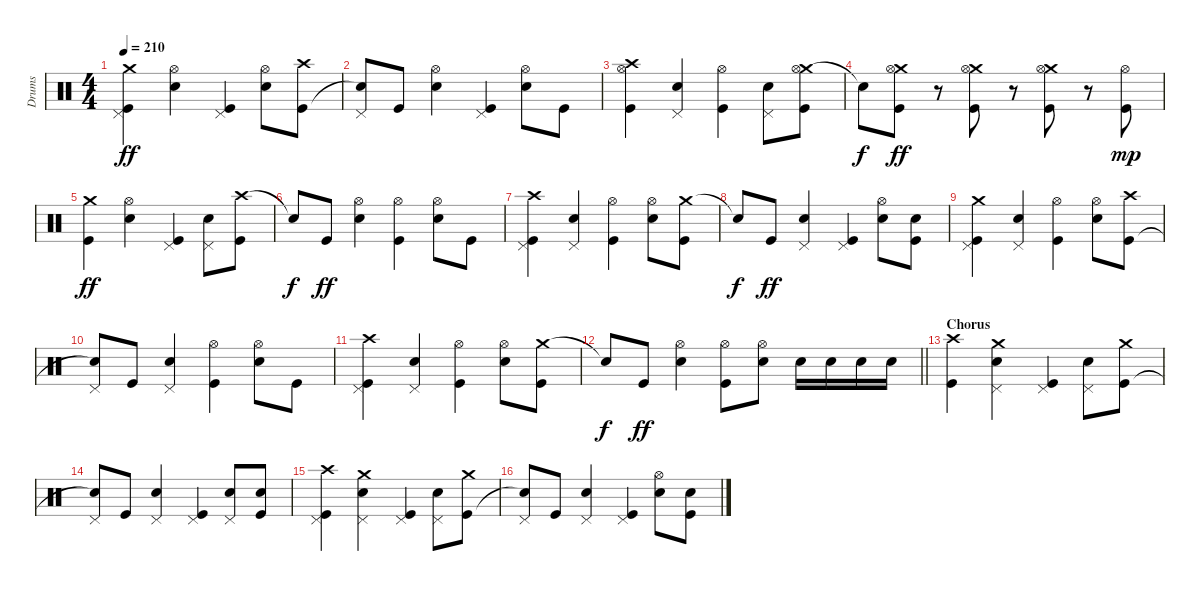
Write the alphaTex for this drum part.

\track ("Drums" "Drums") {instrument percussion}
\staff {score}
\articulation defaults
\ts (4 4)
\tempo 210
\clef neutral
\ks c
("Crash medium (hit)" "Pedal Hi-Hat (hit)" "Kick (hit)").4{dy ff} ("Electric Snare (hit)" "Hi-Hat (open)").4 ("Pedal Hi-Hat (hit)" "Kick (hit)").4 ("Electric Snare (hit)" "Hi-Hat (open)").8 ("Crash high (hit)" "Kick (hit)").8 |
("Pedal Hi-Hat (hit)" "Snare (hit)"{t}).8 "Kick (hit)".8 ("Electric Snare (hit)" "Hi-Hat (open)").4 ("Pedal Hi-Hat (hit)" "Kick (hit)").4 ("Electric Snare (hit)" "Hi-Hat (open)").8 "Kick (hit)".8 |
("Crash high (hit)" "Hi-Hat (open)" "Kick (hit)").4 ("Electric Snare (hit)" "Pedal Hi-Hat (hit)").4 ("Hi-Hat (open)" "Kick (hit)").4 ("Electric Snare (hit)" "Pedal Hi-Hat (hit)").8 ("Crash medium (hit)" "Hi-Hat (open)" "Kick (hit)").8 |
"Snare (hit)"{t}.8{dy f} ("Crash medium (hit)" "Hi-Hat (open)" "Kick (hit)").8{dy ff} r.8 ("Crash medium (hit)" "Hi-Hat (open)" "Kick (hit)").8 r.8 ("Crash medium (hit)" "Hi-Hat (open)" "Kick (hit)").8 r.8 ("Hi-Hat (open)" "Kick (hit)").8{dy mp} |
("Crash medium (hit)" "Kick (hit)").4{dy ff} ("Electric Snare (hit)" "Hi-Hat (open)").4 ("Pedal Hi-Hat (hit)" "Kick (hit)").4 ("Electric Snare (hit)" "Pedal Hi-Hat (hit)").8 ("Crash high (hit)" "Kick (hit)").8 |
"Snare (hit)"{t}.8{dy f} "Kick (hit)".8{dy ff} ("Electric Snare (hit)" "Hi-Hat (open)").4 ("Hi-Hat (open)" "Kick (hit)").4 ("Electric Snare (hit)" "Hi-Hat (open)").8 "Kick (hit)".8 |
("Crash high (hit)" "Pedal Hi-Hat (hit)" "Kick (hit)").4 ("Electric Snare (hit)" "Pedal Hi-Hat (hit)").4 ("Hi-Hat (open)" "Kick (hit)").4 ("Electric Snare (hit)" "Hi-Hat (open)").8 ("Crash medium (hit)" "Kick (hit)").8 |
"Snare (hit)"{t}.8{dy f} "Kick (hit)".8{dy ff} ("Electric Snare (hit)" "Pedal Hi-Hat (hit)").4 ("Pedal Hi-Hat (hit)" "Kick (hit)").4 ("Electric Snare (hit)" "Hi-Hat (open)").8 ("Electric Snare (hit)" "Kick (hit)").8 |
("Crash medium (hit)" "Pedal Hi-Hat (hit)" "Kick (hit)").4 ("Electric Snare (hit)" "Pedal Hi-Hat (hit)").4 ("Hi-Hat (open)" "Kick (hit)").4 ("Electric Snare (hit)" "Hi-Hat (open)").8 ("Crash high (hit)" "Kick (hit)").8 |
("Pedal Hi-Hat (hit)" "Snare (hit)"{t}).8 "Kick (hit)".8 ("Electric Snare (hit)" "Pedal Hi-Hat (hit)").4 ("Hi-Hat (open)" "Kick (hit)").4 ("Electric Snare (hit)" "Hi-Hat (open)").8 "Kick (hit)".8 |
("Crash high (hit)" "Pedal Hi-Hat (hit)" "Kick (hit)").4 ("Electric Snare (hit)" "Pedal Hi-Hat (hit)").4 ("Hi-Hat (open)" "Kick (hit)").4 ("Electric Snare (hit)" "Hi-Hat (open)").8 ("Crash medium (hit)" "Kick (hit)").8 |
\barLineRight lightlight "Snare (hit)"{t}.8{dy f} "Kick (hit)".8{dy ff}
("Electric Snare (hit)" "Hi-Hat (open)").4 ("Hi-Hat (open)" "Kick (hit)").8 ("Electric Snare (hit)" "Hi-Hat (open)").8 "Electric Snare (hit)".16 "Electric Snare (hit)".16 "Electric Snare (hit)".16 "Electric Snare (hit)".16 |
\section ("" "Chorus")
("Crash high (hit)" "Kick (hit)").4 ("Crash medium (hit)" "Electric Snare (hit)" "Pedal Hi-Hat (hit)").4 ("Pedal Hi-Hat (hit)" "Kick (hit)").4 ("Electric Snare (hit)" "Pedal Hi-Hat (hit)").8 ("Crash medium (hit)" "Kick (hit)").8 |
("Pedal Hi-Hat (hit)" "Snare (hit)"{t}).8 "Kick (hit)".8 ("Electric Snare (hit)" "Pedal Hi-Hat (hit)").4 ("Pedal Hi-Hat (hit)" "Kick (hit)").4 ("Electric Snare (hit)" "Pedal Hi-Hat (hit)").8 ("Electric Snare (hit)" "Kick (hit)").8 |
("Crash high (hit)" "Pedal Hi-Hat (hit)" "Kick (hit)").4 ("Crash medium (hit)" "Electric Snare (hit)" "Pedal Hi-Hat (hit)").4 ("Pedal Hi-Hat (hit)" "Kick (hit)").4 ("Electric Snare (hit)" "Pedal Hi-Hat (hit)").8 ("Crash medium (hit)" "Kick (hit)").8 |
("Pedal Hi-Hat (hit)" "Snare (hit)"{t}).8 "Kick (hit)".8 ("Electric Snare (hit)" "Pedal Hi-Hat (hit)").4 ("Pedal Hi-Hat (hit)" "Kick (hit)").4 ("Electric Snare (hit)" "Hi-Hat (open)").8 ("Electric Snare (hit)" "Kick (hit)").8
